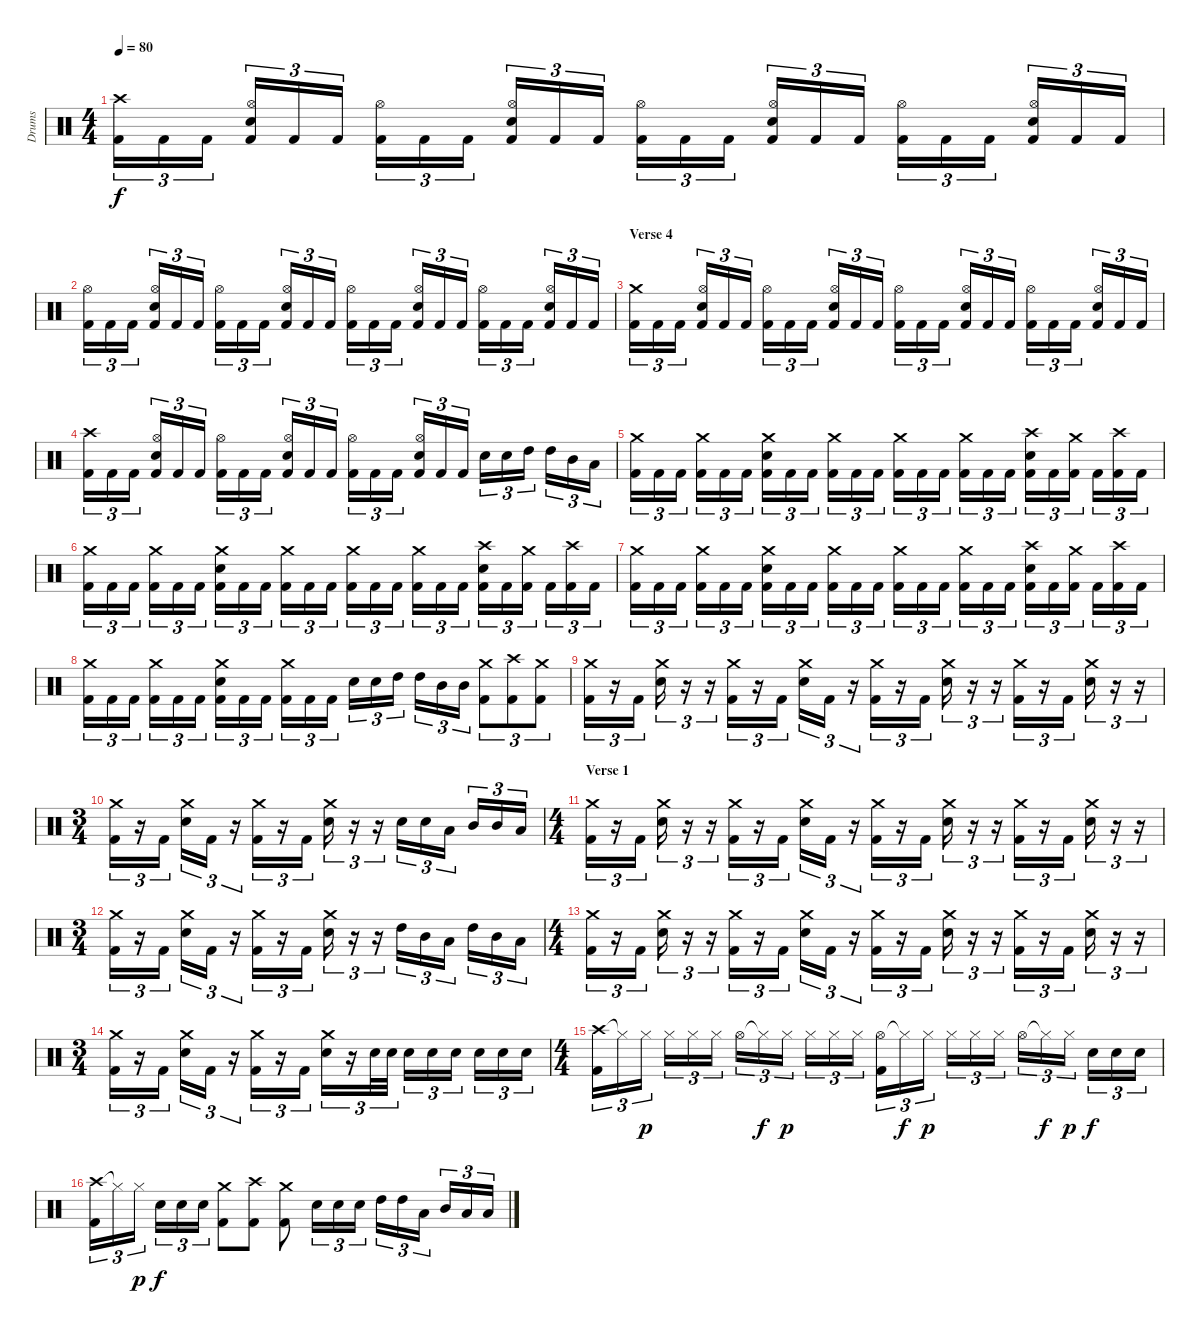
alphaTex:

\track ("Drums" "Drums") {instrument percussion}
\staff {score}
\articulation defaults
\ts (4 4)
\tempo 80
\clef neutral
\ks c
("Crash high (hit)" "Kick (hit) 2").16{tu (3 2) dy f} "Kick (hit) 2".16{tu (3 2)} "Kick (hit) 2".16{tu (3 2)} ("Hi-Hat (open)" "Electric Snare (hit)" "Kick (hit) 2").16{tu (3 2)} "Kick (hit) 2".16{tu (3 2)} "Kick (hit) 2".16{tu (3 2)} ("Hi-Hat (open)" "Kick (hit) 2").16{tu (3 2)} "Kick (hit) 2".16{tu (3 2)} "Kick (hit) 2".16{tu (3 2)} ("Hi-Hat (open)" "Electric Snare (hit)" "Kick (hit) 2").16{tu (3 2)} "Kick (hit) 2".16{tu (3 2)} "Kick (hit) 2".16{tu (3 2)} ("Hi-Hat (open)" "Kick (hit) 2").16{tu (3 2)} "Kick (hit) 2".16{tu (3 2)} "Kick (hit) 2".16{tu (3 2)} ("Hi-Hat (open)" "Electric Snare (hit)" "Kick (hit) 2").16{tu (3 2)} "Kick (hit) 2".16{tu (3 2)} "Kick (hit) 2".16{tu (3 2)} ("Hi-Hat (open)" "Kick (hit) 2").16{tu (3 2)} "Kick (hit) 2".16{tu (3 2)} "Kick (hit) 2".16{tu (3 2)} ("Hi-Hat (open)" "Electric Snare (hit)" "Kick (hit) 2").16{tu (3 2)} "Kick (hit) 2".16{tu (3 2)} "Kick (hit) 2".16{tu (3 2)} |
("Hi-Hat (open)" "Kick (hit) 2").16{tu (3 2)} "Kick (hit) 2".16{tu (3 2)} "Kick (hit) 2".16{tu (3 2)} ("Hi-Hat (open)" "Electric Snare (hit)" "Kick (hit) 2").16{tu (3 2)} "Kick (hit) 2".16{tu (3 2)} "Kick (hit) 2".16{tu (3 2)} ("Hi-Hat (open)" "Kick (hit) 2").16{tu (3 2)} "Kick (hit) 2".16{tu (3 2)} "Kick (hit) 2".16{tu (3 2)} ("Hi-Hat (open)" "Electric Snare (hit)" "Kick (hit) 2").16{tu (3 2)} "Kick (hit) 2".16{tu (3 2)} "Kick (hit) 2".16{tu (3 2)} ("Hi-Hat (open)" "Kick (hit) 2").16{tu (3 2)} "Kick (hit) 2".16{tu (3 2)} "Kick (hit) 2".16{tu (3 2)} ("Hi-Hat (open)" "Electric Snare (hit)" "Kick (hit) 2").16{tu (3 2)} "Kick (hit) 2".16{tu (3 2)} "Kick (hit) 2".16{tu (3 2)} ("Hi-Hat (open)" "Kick (hit) 2").16{tu (3 2)} "Kick (hit) 2".16{tu (3 2)} "Kick (hit) 2".16{tu (3 2)} ("Hi-Hat (open)" "Electric Snare (hit)" "Kick (hit) 2").16{tu (3 2)} "Kick (hit) 2".16{tu (3 2)} "Kick (hit) 2".16{tu (3 2)} |
\section ("" "Verse 4")
("Crash medium (hit)" "Kick (hit) 2").16{tu (3 2)} "Kick (hit) 2".16{tu (3 2)} "Kick (hit) 2".16{tu (3 2)} ("Hi-Hat (open)" "Electric Snare (hit)" "Kick (hit) 2").16{tu (3 2)} "Kick (hit) 2".16{tu (3 2)} "Kick (hit) 2".16{tu (3 2)} ("Hi-Hat (open)" "Kick (hit) 2").16{tu (3 2)} "Kick (hit) 2".16{tu (3 2)} "Kick (hit) 2".16{tu (3 2)} ("Hi-Hat (open)" "Electric Snare (hit)" "Kick (hit) 2").16{tu (3 2)} "Kick (hit) 2".16{tu (3 2)} "Kick (hit) 2".16{tu (3 2)} ("Hi-Hat (open)" "Kick (hit) 2").16{tu (3 2)} "Kick (hit) 2".16{tu (3 2)} "Kick (hit) 2".16{tu (3 2)} ("Hi-Hat (open)" "Electric Snare (hit)" "Kick (hit) 2").16{tu (3 2)} "Kick (hit) 2".16{tu (3 2)} "Kick (hit) 2".16{tu (3 2)} ("Hi-Hat (open)" "Kick (hit) 2").16{tu (3 2)} "Kick (hit) 2".16{tu (3 2)} "Kick (hit) 2".16{tu (3 2)} ("Hi-Hat (open)" "Electric Snare (hit)" "Kick (hit) 2").16{tu (3 2)} "Kick (hit) 2".16{tu (3 2)} "Kick (hit) 2".16{tu (3 2)} |
("Crash high (hit)" "Kick (hit) 2").16{tu (3 2)} "Kick (hit) 2".16{tu (3 2)} "Kick (hit) 2".16{tu (3 2)} ("Hi-Hat (open)" "Electric Snare (hit)" "Kick (hit) 2").16{tu (3 2)} "Kick (hit) 2".16{tu (3 2)} "Kick (hit) 2".16{tu (3 2)} ("Hi-Hat (open)" "Kick (hit) 2").16{tu (3 2)} "Kick (hit) 2".16{tu (3 2)} "Kick (hit) 2".16{tu (3 2)} ("Hi-Hat (open)" "Electric Snare (hit)" "Kick (hit) 2").16{tu (3 2)} "Kick (hit) 2".16{tu (3 2)} "Kick (hit) 2".16{tu (3 2)} ("Hi-Hat (open)" "Kick (hit) 2").16{tu (3 2)} "Kick (hit) 2".16{tu (3 2)} "Kick (hit) 2".16{tu (3 2)} ("Hi-Hat (open)" "Electric Snare (hit)" "Kick (hit) 2").16{tu (3 2)} "Kick (hit) 2".16{tu (3 2)} "Kick (hit) 2".16{tu (3 2)} "Electric Snare (hit)".16{tu (3 2)} "Electric Snare (hit)".16{tu (3 2)} "High Tom (hit)".16{tu (3 2)} "High Tom (hit)".16{tu (3 2)} "Mid Tom (hit)".16{tu (3 2)} "Low Tom (hit)".16{tu (3 2)} |
("Crash medium (hit)" "Kick (hit) 2").16{tu (3 2)} "Kick (hit) 2".16{tu (3 2)} "Kick (hit) 2".16{tu (3 2)} ("Crash medium (hit)" "Kick (hit) 2").16{tu (3 2)} "Kick (hit) 2".16{tu (3 2)} "Kick (hit) 2".16{tu (3 2)} ("Crash medium (hit)" "Electric Snare (hit)" "Kick (hit) 2").16{tu (3 2)} "Kick (hit) 2".16{tu (3 2)} "Kick (hit) 2".16{tu (3 2)} ("Crash medium (hit)" "Kick (hit) 2").16{tu (3 2)} "Kick (hit) 2".16{tu (3 2)} "Kick (hit) 2".16{tu (3 2)} ("Crash medium (hit)" "Kick (hit) 2").16{tu (3 2)} "Kick (hit) 2".16{tu (3 2)} "Kick (hit) 2".16{tu (3 2)} ("Crash medium (hit)" "Kick (hit) 2").16{tu (3 2)} "Kick (hit) 2".16{tu (3 2)} "Kick (hit) 2".16{tu (3 2)} ("Crash high (hit)" "Electric Snare (hit)" "Kick (hit) 2").16{tu (3 2)} "Kick (hit) 2".16{tu (3 2)} ("Crash medium (hit)" "Kick (hit) 2").16{tu (3 2)} "Kick (hit) 2".16{tu (3 2)} ("Crash high (hit)" "Kick (hit) 2").16{tu (3 2)} "Kick (hit) 2".16{tu (3 2)} |
("Crash medium (hit)" "Kick (hit) 2").16{tu (3 2)} "Kick (hit) 2".16{tu (3 2)} "Kick (hit) 2".16{tu (3 2)} ("Crash medium (hit)" "Kick (hit) 2").16{tu (3 2)} "Kick (hit) 2".16{tu (3 2)} "Kick (hit) 2".16{tu (3 2)} ("Crash medium (hit)" "Electric Snare (hit)" "Kick (hit) 2").16{tu (3 2)} "Kick (hit) 2".16{tu (3 2)} "Kick (hit) 2".16{tu (3 2)} ("Crash medium (hit)" "Kick (hit) 2").16{tu (3 2)} "Kick (hit) 2".16{tu (3 2)} "Kick (hit) 2".16{tu (3 2)} ("Crash medium (hit)" "Kick (hit) 2").16{tu (3 2)} "Kick (hit) 2".16{tu (3 2)} "Kick (hit) 2".16{tu (3 2)} ("Crash medium (hit)" "Kick (hit) 2").16{tu (3 2)} "Kick (hit) 2".16{tu (3 2)} "Kick (hit) 2".16{tu (3 2)} ("Crash high (hit)" "Electric Snare (hit)" "Kick (hit) 2").16{tu (3 2)} "Kick (hit) 2".16{tu (3 2)} ("Crash medium (hit)" "Kick (hit) 2").16{tu (3 2)} "Kick (hit) 2".16{tu (3 2)} ("Crash high (hit)" "Kick (hit) 2").16{tu (3 2)} "Kick (hit) 2".16{tu (3 2)} |
("Crash medium (hit)" "Kick (hit) 2").16{tu (3 2)} "Kick (hit) 2".16{tu (3 2)} "Kick (hit) 2".16{tu (3 2)} ("Crash medium (hit)" "Kick (hit) 2").16{tu (3 2)} "Kick (hit) 2".16{tu (3 2)} "Kick (hit) 2".16{tu (3 2)} ("Crash medium (hit)" "Electric Snare (hit)" "Kick (hit) 2").16{tu (3 2)} "Kick (hit) 2".16{tu (3 2)} "Kick (hit) 2".16{tu (3 2)} ("Crash medium (hit)" "Kick (hit) 2").16{tu (3 2)} "Kick (hit) 2".16{tu (3 2)} "Kick (hit) 2".16{tu (3 2)} ("Crash medium (hit)" "Kick (hit) 2").16{tu (3 2)} "Kick (hit) 2".16{tu (3 2)} "Kick (hit) 2".16{tu (3 2)} ("Crash medium (hit)" "Kick (hit) 2").16{tu (3 2)} "Kick (hit) 2".16{tu (3 2)} "Kick (hit) 2".16{tu (3 2)} ("Crash high (hit)" "Electric Snare (hit)" "Kick (hit) 2").16{tu (3 2)} "Kick (hit) 2".16{tu (3 2)} ("Crash medium (hit)" "Kick (hit) 2").16{tu (3 2)} "Kick (hit) 2".16{tu (3 2)} ("Crash high (hit)" "Kick (hit) 2").16{tu (3 2)} "Kick (hit) 2".16{tu (3 2)} |
("Crash medium (hit)" "Kick (hit) 2").16{tu (3 2)} "Kick (hit) 2".16{tu (3 2)} "Kick (hit) 2".16{tu (3 2)} ("Crash medium (hit)" "Kick (hit) 2").16{tu (3 2)} "Kick (hit) 2".16{tu (3 2)} "Kick (hit) 2".16{tu (3 2)} ("Crash medium (hit)" "Electric Snare (hit)" "Kick (hit) 2").16{tu (3 2)} "Kick (hit) 2".16{tu (3 2)} "Kick (hit) 2".16{tu (3 2)} ("Crash medium (hit)" "Kick (hit) 2").16{tu (3 2)} "Kick (hit) 2".16{tu (3 2)} "Kick (hit) 2".16{tu (3 2)} "Electric Snare (hit)".16{tu (3 2)} "Electric Snare (hit)".16{tu (3 2)} "High Tom (hit)".16{tu (3 2)} "High Tom (hit)".16{tu (3 2)} "Mid Tom (hit)".16{tu (3 2)} "Mid Tom (hit)".16{tu (3 2)} ("Crash medium (hit)" "Kick (hit) 2").8{tu (3 2)} ("Crash high (hit)" "Kick (hit) 2").8{tu (3 2)} ("Crash medium (hit)" "Kick (hit) 2").8{tu (3 2)} |
("Crash medium (hit)" "Kick (hit) 2").16{tu (3 2)} r.16{tu (3 2)} "Kick (hit) 2".16{tu (3 2)} ("Crash medium (hit)" "Electric Snare (hit)").16{tu (3 2)} r.16{tu (3 2)} r.16{tu (3 2)} ("Crash medium (hit)" "Kick (hit) 2").16{tu (3 2)} r.16{tu (3 2)} "Kick (hit) 2".16{tu (3 2)} ("Crash medium (hit)" "Electric Snare (hit)").16{tu (3 2)} "Kick (hit) 2".16{tu (3 2)} r.16{tu (3 2)} ("Crash medium (hit)" "Kick (hit) 2").16{tu (3 2)} r.16{tu (3 2)} "Kick (hit) 2".16{tu (3 2)} ("Crash medium (hit)" "Electric Snare (hit)").16{tu (3 2)} r.16{tu (3 2)} r.16{tu (3 2)} ("Crash medium (hit)" "Kick (hit) 2").16{tu (3 2)} r.16{tu (3 2)} "Kick (hit) 2".16{tu (3 2)} ("Crash medium (hit)" "Electric Snare (hit)").16{tu (3 2)} r.16{tu (3 2)} r.16{tu (3 2)} |
\ts (3 4)
("Crash medium (hit)" "Kick (hit) 2").16{tu (3 2)} r.16{tu (3 2)} "Kick (hit) 2".16{tu (3 2)} ("Crash medium (hit)" "Electric Snare (hit)").16{tu (3 2)} "Kick (hit) 2".16{tu (3 2)} r.16{tu (3 2)} ("Crash medium (hit)" "Kick (hit) 2").16{tu (3 2)} r.16{tu (3 2)} "Kick (hit) 2".16{tu (3 2)} ("Crash medium (hit)" "Electric Snare (hit)").16{tu (3 2)} r.16{tu (3 2)} r.16{tu (3 2)} "Electric Snare (hit)".16{tu (3 2)} "Electric Snare (hit)".16{tu (3 2)} "Low Tom (hit)".16{tu (3 2)} "Mid Tom (hit)".16{tu (3 2)} "Mid Tom (hit)".16{tu (3 2)} "Low Tom (hit)".16{tu (3 2)} |
\ts (4 4)
\section ("" "Verse 1")
("Crash medium (hit)" "Kick (hit) 2").16{tu (3 2)} r.16{tu (3 2)} "Kick (hit) 2".16{tu (3 2)} ("Crash medium (hit)" "Electric Snare (hit)").16{tu (3 2)} r.16{tu (3 2)} r.16{tu (3 2)} ("Crash medium (hit)" "Kick (hit) 2").16{tu (3 2)} r.16{tu (3 2)} "Kick (hit) 2".16{tu (3 2)} ("Crash medium (hit)" "Electric Snare (hit)").16{tu (3 2)} "Kick (hit) 2".16{tu (3 2)} r.16{tu (3 2)} ("Crash medium (hit)" "Kick (hit) 2").16{tu (3 2)} r.16{tu (3 2)} "Kick (hit) 2".16{tu (3 2)} ("Crash medium (hit)" "Electric Snare (hit)").16{tu (3 2)} r.16{tu (3 2)} r.16{tu (3 2)} ("Crash medium (hit)" "Kick (hit) 2").16{tu (3 2)} r.16{tu (3 2)} "Kick (hit) 2".16{tu (3 2)} ("Crash medium (hit)" "Electric Snare (hit)").16{tu (3 2)} r.16{tu (3 2)} r.16{tu (3 2)} |
\ts (3 4)
("Crash medium (hit)" "Kick (hit) 2").16{tu (3 2)} r.16{tu (3 2)} "Kick (hit) 2".16{tu (3 2)} ("Crash medium (hit)" "Electric Snare (hit)").16{tu (3 2)} "Kick (hit) 2".16{tu (3 2)} r.16{tu (3 2)} ("Crash medium (hit)" "Kick (hit) 2").16{tu (3 2)} r.16{tu (3 2)} "Kick (hit) 2".16{tu (3 2)} ("Crash medium (hit)" "Electric Snare (hit)").16{tu (3 2)} r.16{tu (3 2)} r.16{tu (3 2)} "High Tom (hit)".16{tu (3 2)} "Mid Tom (hit)".16{tu (3 2)} "Low Tom (hit)".16{tu (3 2)} "High Tom (hit)".16{tu (3 2)} "Mid Tom (hit)".16{tu (3 2)} "Low Tom (hit)".16{tu (3 2)} |
\ts (4 4)
("Crash medium (hit)" "Kick (hit) 2").16{tu (3 2)} r.16{tu (3 2)} "Kick (hit) 2".16{tu (3 2)} ("Crash medium (hit)" "Electric Snare (hit)").16{tu (3 2)} r.16{tu (3 2)} r.16{tu (3 2)} ("Crash medium (hit)" "Kick (hit) 2").16{tu (3 2)} r.16{tu (3 2)} "Kick (hit) 2".16{tu (3 2)} ("Crash medium (hit)" "Electric Snare (hit)").16{tu (3 2)} "Kick (hit) 2".16{tu (3 2)} r.16{tu (3 2)} ("Crash medium (hit)" "Kick (hit) 2").16{tu (3 2)} r.16{tu (3 2)} "Kick (hit) 2".16{tu (3 2)} ("Crash medium (hit)" "Electric Snare (hit)").16{tu (3 2)} r.16{tu (3 2)} r.16{tu (3 2)} ("Crash medium (hit)" "Kick (hit) 2").16{tu (3 2)} r.16{tu (3 2)} "Kick (hit) 2".16{tu (3 2)} ("Crash medium (hit)" "Electric Snare (hit)").16{tu (3 2)} r.16{tu (3 2)} r.16{tu (3 2)} |
\ts (3 4)
("Crash medium (hit)" "Kick (hit) 2").16{tu (3 2)} r.16{tu (3 2)} "Kick (hit) 2".16{tu (3 2)} ("Crash medium (hit)" "Electric Snare (hit)").16{tu (3 2)} "Kick (hit) 2".16{tu (3 2)} r.16{tu (3 2)} ("Crash medium (hit)" "Kick (hit) 2").16{tu (3 2)} r.16{tu (3 2)} "Kick (hit) 2".16{tu (3 2)} ("Crash medium (hit)" "Electric Snare (hit)").16{tu (3 2)} r.16{tu (3 2)} "Electric Snare (hit)".32{tu (3 2)} "Electric Snare (hit)".32{tu (3 2)} "Electric Snare (hit)".16{tu (3 2)} "Electric Snare (hit)".16{tu (3 2)} "Electric Snare (hit)".16{tu (3 2)} "Electric Snare (hit)".16{tu (3 2)} "Electric Snare (hit)".16{tu (3 2)} "Electric Snare (hit)".16{tu (3 2)} |
\ts (4 4)
("Crash high (hit)" "Kick (hit) 2").16{tu (3 2)} "Hi-Hat (closed)"{t}.16{tu (3 2)} "Hi-Hat (closed)".16{tu (3 2) dy p} "Hi-Hat (closed)".16{tu (3 2)} "Hi-Hat (closed)".16{tu (3 2)} "Hi-Hat (closed)".16{tu (3 2)} "Hi-Hat (open)".16{tu (3 2)} "Hi-Hat (closed)"{t}.16{tu (3 2) dy f} "Hi-Hat (closed)".16{tu (3 2) dy p} "Hi-Hat (closed)".16{tu (3 2)} "Hi-Hat (closed)".16{tu (3 2)} "Hi-Hat (closed)".16{tu (3 2)} ("Hi-Hat (open)" "Kick (hit) 2").16{tu (3 2)} "Hi-Hat (closed)"{t}.16{tu (3 2) dy f} "Hi-Hat (closed)".16{tu (3 2) dy p} "Hi-Hat (closed)".16{tu (3 2)} "Hi-Hat (closed)".16{tu (3 2)} "Hi-Hat (closed)".16{tu (3 2)} "Hi-Hat (open)".16{tu (3 2)} "Hi-Hat (closed)"{t}.16{tu (3 2) dy f} "Hi-Hat (closed)".16{tu (3 2) dy p} "Electric Snare (hit)".16{tu (3 2) dy f} "Electric Snare (hit)".16{tu (3 2)} "Electric Snare (hit)".16{tu (3 2)} |
("Crash high (hit)" "Kick (hit) 2").16{tu (3 2)} "Hi-Hat (closed)"{t}.16{tu (3 2)} "Hi-Hat (closed)".16{tu (3 2) dy p} "Electric Snare (hit)".16{tu (3 2) dy f} "Electric Snare (hit)".16{tu (3 2)} "Electric Snare (hit)".16{tu (3 2)} ("Crash medium (hit)" "Kick (hit) 2").8 ("Crash high (hit)" "Kick (hit) 2").8 ("Crash medium (hit)" "Kick (hit) 2").8 "Electric Snare (hit)".16{tu (3 2)} "Electric Snare (hit)".16{tu (3 2)} "Electric Snare (hit)".16{tu (3 2)} "High Tom (hit)".16{tu (3 2)} "High Tom (hit)".16{tu (3 2)} "Low Tom (hit)".16{tu (3 2)} "Mid Tom (hit)".16{tu (3 2)} "Low Tom (hit)".16{tu (3 2)} "Low Tom (hit)".16{tu (3 2)}
